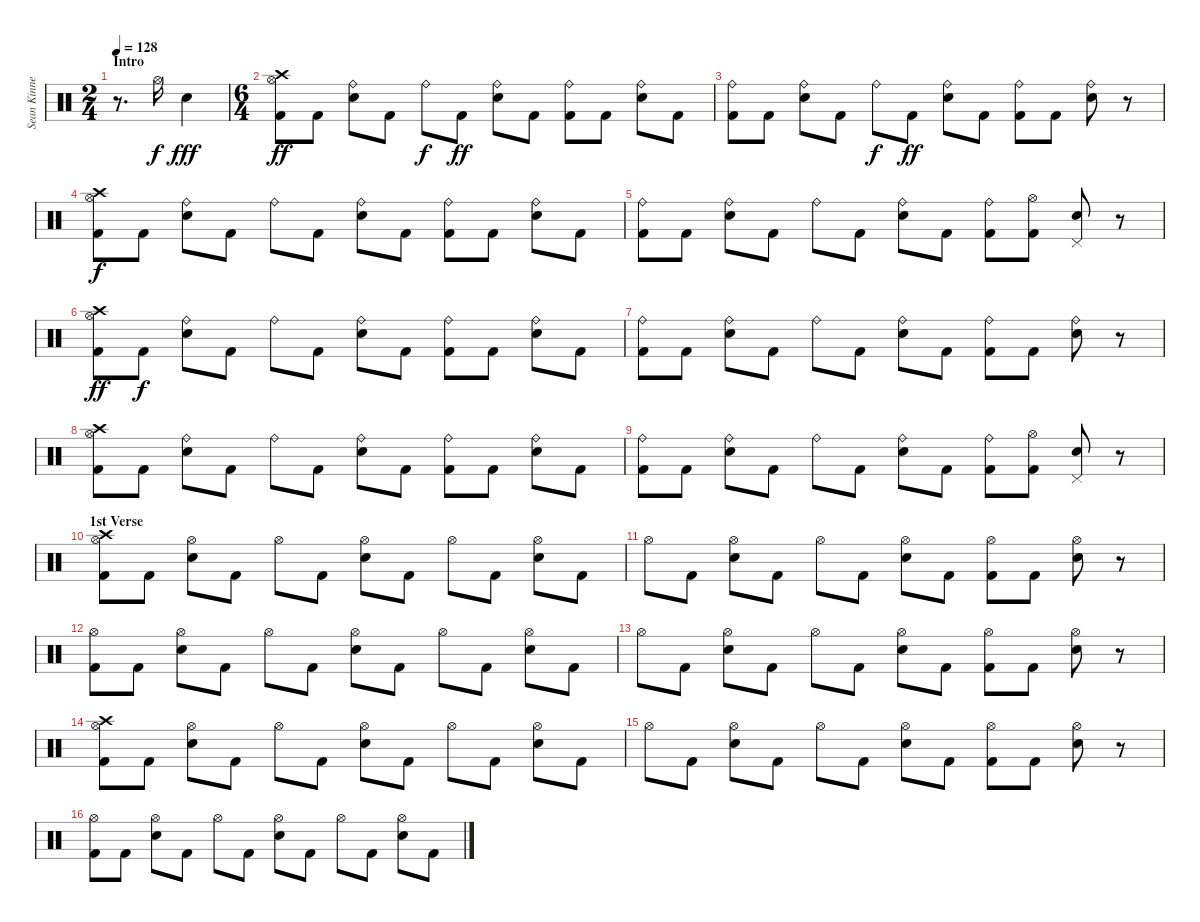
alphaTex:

\track ("Sean Kinney (Drums)" "Sean Kinne") {instrument percussion}
\staff {score}
\articulation defaults
\ts (2 4)
\section ("" "Intro")
\tempo 128
\clef neutral
\ks c
r.8{d dy f} "Hi-Hat (open)".16 "Electric Snare (hit)".4{dy fff} |
\ts (6 4)
("Kick (hit) 2" "Crash high (hit)" "Hi-Hat (open)").8{dy ff} "Kick (hit) 2".8 ("Electric Snare (hit)" "Ride (bell)").8 "Kick (hit) 2".8 "Ride (bell)".8{dy f} "Kick (hit) 2".8{dy ff} ("Electric Snare (hit)" "Ride (bell)").8 "Kick (hit) 2".8 ("Kick (hit) 2" "Ride (bell)").8 "Kick (hit) 2".8 ("Electric Snare (hit)" "Ride (bell)").8 "Kick (hit) 2".8 |
("Kick (hit) 2" "Ride (bell)").8 "Kick (hit) 2".8 ("Electric Snare (hit)" "Ride (bell)").8 "Kick (hit) 2".8 "Ride (bell)".8{dy f} "Kick (hit) 2".8{dy ff} ("Electric Snare (hit)" "Ride (bell)").8 "Kick (hit) 2".8 ("Kick (hit) 2" "Ride (bell)").8 "Kick (hit) 2".8 ("Electric Snare (hit)" "Ride (bell)").8 r.8 |
("Kick (hit) 2" "Crash high (hit)" "Hi-Hat (open)").8{dy f} "Kick (hit) 2".8 ("Electric Snare (hit)" "Ride (bell)").8 "Kick (hit) 2".8 "Ride (bell)".8 "Kick (hit) 2".8 ("Electric Snare (hit)" "Ride (bell)").8 "Kick (hit) 2".8 ("Kick (hit) 2" "Ride (bell)").8 "Kick (hit) 2".8 ("Electric Snare (hit)" "Ride (bell)").8 "Kick (hit) 2".8 |
("Kick (hit) 2" "Ride (bell)").8 "Kick (hit) 2".8 ("Electric Snare (hit)" "Ride (bell)").8 "Kick (hit) 2".8 "Ride (bell)".8 "Kick (hit) 2".8 ("Electric Snare (hit)" "Ride (bell)").8 "Kick (hit) 2".8 ("Kick (hit) 2" "Ride (bell)").8 ("Kick (hit) 2" "Hi-Hat (open)").8 ("Electric Snare (hit)" "Pedal Hi-Hat (hit)").8 r.8 |
("Kick (hit) 2" "Crash high (hit)" "Hi-Hat (open)").8{dy ff} "Kick (hit) 2".8{dy f} ("Electric Snare (hit)" "Ride (bell)").8 "Kick (hit) 2".8 "Ride (bell)".8 "Kick (hit) 2".8 ("Electric Snare (hit)" "Ride (bell)").8 "Kick (hit) 2".8 ("Kick (hit) 2" "Ride (bell)").8 "Kick (hit) 2".8 ("Electric Snare (hit)" "Ride (bell)").8 "Kick (hit) 2".8 |
("Kick (hit) 2" "Ride (bell)").8 "Kick (hit) 2".8 ("Electric Snare (hit)" "Ride (bell)").8 "Kick (hit) 2".8 "Ride (bell)".8 "Kick (hit) 2".8 ("Electric Snare (hit)" "Ride (bell)").8 "Kick (hit) 2".8 ("Kick (hit) 2" "Ride (bell)").8 "Kick (hit) 2".8 ("Electric Snare (hit)" "Ride (bell)").8 r.8 |
("Kick (hit) 2" "Crash high (hit)" "Hi-Hat (open)").8 "Kick (hit) 2".8 ("Electric Snare (hit)" "Ride (bell)").8 "Kick (hit) 2".8 "Ride (bell)".8 "Kick (hit) 2".8 ("Electric Snare (hit)" "Ride (bell)").8 "Kick (hit) 2".8 ("Kick (hit) 2" "Ride (bell)").8 "Kick (hit) 2".8 ("Electric Snare (hit)" "Ride (bell)").8 "Kick (hit) 2".8 |
("Kick (hit) 2" "Ride (bell)").8 "Kick (hit) 2".8 ("Electric Snare (hit)" "Ride (bell)").8 "Kick (hit) 2".8 "Ride (bell)".8 "Kick (hit) 2".8 ("Electric Snare (hit)" "Ride (bell)").8 "Kick (hit) 2".8 ("Kick (hit) 2" "Ride (bell)").8 ("Kick (hit) 2" "Hi-Hat (open)").8 ("Electric Snare (hit)" "Pedal Hi-Hat (hit)").8 r.8 |
\section ("" "1st Verse")
("Kick (hit) 2" "Crash high (hit)" "Hi-Hat (open)").8 "Kick (hit) 2".8 ("Electric Snare (hit)" "Hi-Hat (open)").8 "Kick (hit) 2".8 "Hi-Hat (open)".8 "Kick (hit) 2".8 ("Electric Snare (hit)" "Hi-Hat (open)").8 "Kick (hit) 2".8 "Hi-Hat (open)".8 "Kick (hit) 2".8 ("Electric Snare (hit)" "Hi-Hat (open)").8 "Kick (hit) 2".8 |
"Hi-Hat (open)".8 "Kick (hit) 2".8 ("Electric Snare (hit)" "Hi-Hat (open)").8 "Kick (hit) 2".8 "Hi-Hat (open)".8 "Kick (hit) 2".8 ("Electric Snare (hit)" "Hi-Hat (open)").8 "Kick (hit) 2".8 ("Kick (hit) 2" "Hi-Hat (open)").8 "Kick (hit) 2".8 ("Electric Snare (hit)" "Hi-Hat (open)").8 r.8 |
("Kick (hit) 2" "Hi-Hat (open)").8 "Kick (hit) 2".8 ("Electric Snare (hit)" "Hi-Hat (open)").8 "Kick (hit) 2".8 "Hi-Hat (open)".8 "Kick (hit) 2".8 ("Electric Snare (hit)" "Hi-Hat (open)").8 "Kick (hit) 2".8 "Hi-Hat (open)".8 "Kick (hit) 2".8 ("Electric Snare (hit)" "Hi-Hat (open)").8 "Kick (hit) 2".8 |
"Hi-Hat (open)".8 "Kick (hit) 2".8 ("Electric Snare (hit)" "Hi-Hat (open)").8 "Kick (hit) 2".8 "Hi-Hat (open)".8 "Kick (hit) 2".8 ("Electric Snare (hit)" "Hi-Hat (open)").8 "Kick (hit) 2".8 ("Kick (hit) 2" "Hi-Hat (open)").8 "Kick (hit) 2".8 ("Electric Snare (hit)" "Hi-Hat (open)").8 r.8 |
("Kick (hit) 2" "Crash high (hit)" "Hi-Hat (open)").8 "Kick (hit) 2".8 ("Electric Snare (hit)" "Hi-Hat (open)").8 "Kick (hit) 2".8 "Hi-Hat (open)".8 "Kick (hit) 2".8 ("Electric Snare (hit)" "Hi-Hat (open)").8 "Kick (hit) 2".8 "Hi-Hat (open)".8 "Kick (hit) 2".8 ("Electric Snare (hit)" "Hi-Hat (open)").8 "Kick (hit) 2".8 |
"Hi-Hat (open)".8 "Kick (hit) 2".8 ("Electric Snare (hit)" "Hi-Hat (open)").8 "Kick (hit) 2".8 "Hi-Hat (open)".8 "Kick (hit) 2".8 ("Electric Snare (hit)" "Hi-Hat (open)").8 "Kick (hit) 2".8 ("Kick (hit) 2" "Hi-Hat (open)").8 "Kick (hit) 2".8 ("Electric Snare (hit)" "Hi-Hat (open)").8 r.8 |
("Kick (hit) 2" "Hi-Hat (open)").8 "Kick (hit) 2".8 ("Electric Snare (hit)" "Hi-Hat (open)").8 "Kick (hit) 2".8 "Hi-Hat (open)".8 "Kick (hit) 2".8 ("Electric Snare (hit)" "Hi-Hat (open)").8 "Kick (hit) 2".8 "Hi-Hat (open)".8 "Kick (hit) 2".8 ("Electric Snare (hit)" "Hi-Hat (open)").8 "Kick (hit) 2".8
